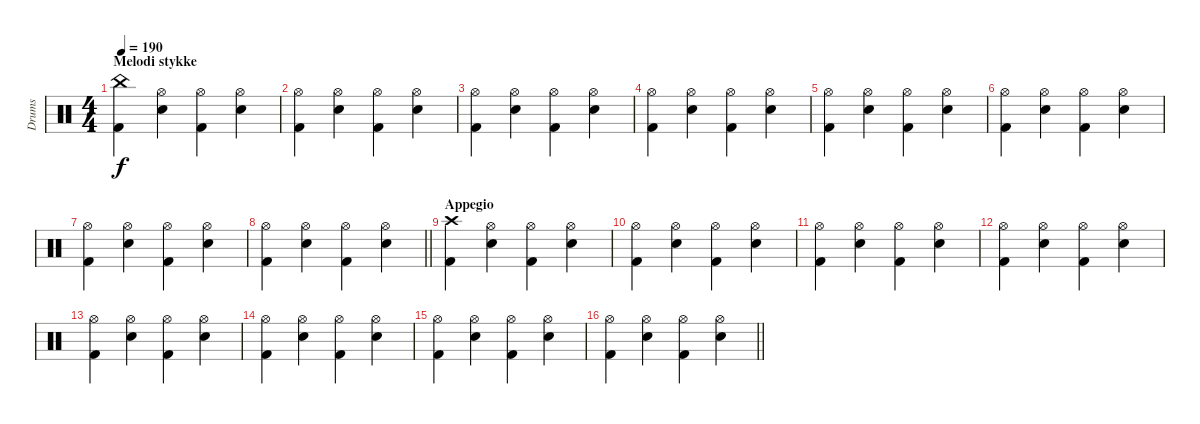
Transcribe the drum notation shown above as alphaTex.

\track ("Drums" "Drums") {instrument percussion}
\staff {score}
\articulation defaults
\ts (4 4)
\section ("" "Melodi stykke")
\tempo 190
\clef neutral
\ks c
("China (hit)" "Kick (hit) 2").4{dy f} ("Hi-Hat (open)" "Snare (hit) 2").4 ("Hi-Hat (open)" "Kick (hit) 2").4 ("Hi-Hat (open)" "Snare (hit) 2").4 |
("Hi-Hat (open)" "Kick (hit) 2").4 ("Hi-Hat (open)" "Snare (hit) 2").4 ("Hi-Hat (open)" "Kick (hit) 2").4 ("Hi-Hat (open)" "Snare (hit) 2").4 |
("Hi-Hat (open)" "Kick (hit) 2").4 ("Hi-Hat (open)" "Snare (hit) 2").4 ("Hi-Hat (open)" "Kick (hit) 2").4 ("Hi-Hat (open)" "Snare (hit) 2").4 |
("Hi-Hat (open)" "Kick (hit) 2").4 ("Hi-Hat (open)" "Snare (hit) 2").4 ("Hi-Hat (open)" "Kick (hit) 2").4 ("Hi-Hat (open)" "Snare (hit) 2").4 |
("Hi-Hat (open)" "Kick (hit) 2").4 ("Hi-Hat (open)" "Snare (hit) 2").4 ("Hi-Hat (open)" "Kick (hit) 2").4 ("Hi-Hat (open)" "Snare (hit) 2").4 |
("Hi-Hat (open)" "Kick (hit) 2").4 ("Hi-Hat (open)" "Snare (hit) 2").4 ("Hi-Hat (open)" "Kick (hit) 2").4 ("Hi-Hat (open)" "Snare (hit) 2").4 |
("Hi-Hat (open)" "Kick (hit) 2").4 ("Hi-Hat (open)" "Snare (hit) 2").4 ("Hi-Hat (open)" "Kick (hit) 2").4 ("Hi-Hat (open)" "Snare (hit) 2").4 |
\barLineRight lightlight
("Hi-Hat (open)" "Kick (hit) 2").4 ("Hi-Hat (open)" "Snare (hit) 2").4 ("Hi-Hat (open)" "Kick (hit) 2").4 ("Hi-Hat (open)" "Snare (hit) 2").4 |
\section ("" "Appegio")
("Crash high (hit)" "Kick (hit) 2").4 ("Hi-Hat (open)" "Snare (hit) 2").4 ("Hi-Hat (open)" "Kick (hit) 2").4 ("Hi-Hat (open)" "Snare (hit) 2").4 |
("Hi-Hat (open)" "Kick (hit) 2").4 ("Hi-Hat (open)" "Snare (hit) 2").4 ("Hi-Hat (open)" "Kick (hit) 2").4 ("Hi-Hat (open)" "Snare (hit) 2").4 |
("Hi-Hat (open)" "Kick (hit) 2").4 ("Hi-Hat (open)" "Snare (hit) 2").4 ("Hi-Hat (open)" "Kick (hit) 2").4 ("Hi-Hat (open)" "Snare (hit) 2").4 |
("Hi-Hat (open)" "Kick (hit) 2").4 ("Hi-Hat (open)" "Snare (hit) 2").4 ("Hi-Hat (open)" "Kick (hit) 2").4 ("Hi-Hat (open)" "Snare (hit) 2").4 |
("Hi-Hat (open)" "Kick (hit) 2").4 ("Hi-Hat (open)" "Snare (hit) 2").4 ("Hi-Hat (open)" "Kick (hit) 2").4 ("Hi-Hat (open)" "Snare (hit) 2").4 |
("Hi-Hat (open)" "Kick (hit) 2").4 ("Hi-Hat (open)" "Snare (hit) 2").4 ("Hi-Hat (open)" "Kick (hit) 2").4 ("Hi-Hat (open)" "Snare (hit) 2").4 |
("Hi-Hat (open)" "Kick (hit) 2").4 ("Hi-Hat (open)" "Snare (hit) 2").4 ("Hi-Hat (open)" "Kick (hit) 2").4 ("Hi-Hat (open)" "Snare (hit) 2").4 |
\barLineRight lightlight
("Hi-Hat (open)" "Kick (hit) 2").4 ("Hi-Hat (open)" "Snare (hit) 2").4 ("Hi-Hat (open)" "Kick (hit) 2").4 ("Hi-Hat (open)" "Snare (hit) 2").4
